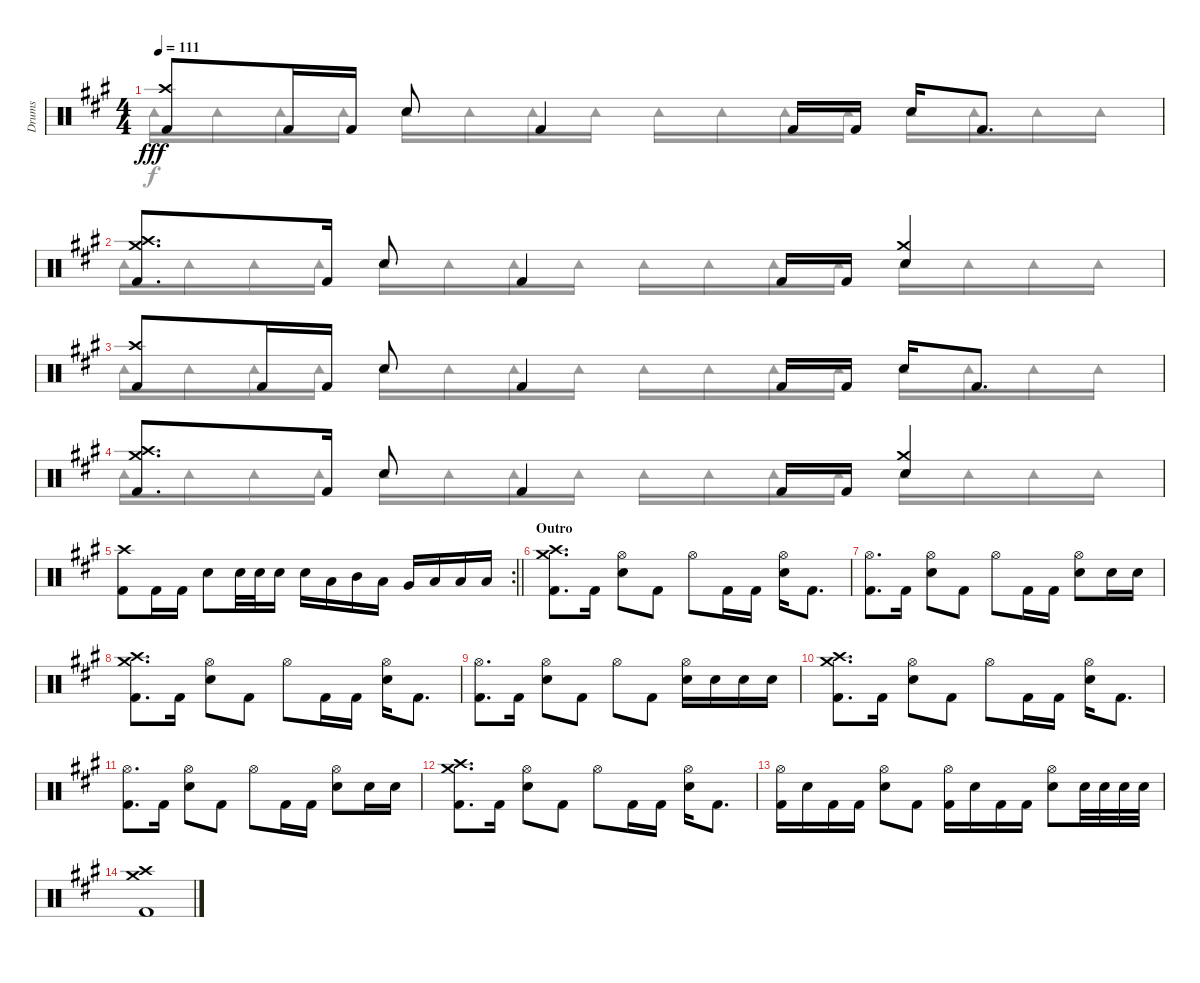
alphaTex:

\track ("Drums" "Drums") {instrument percussion}
\staff {score}
\articulation defaults
\voice
\ts (4 4)
\tempo 111
\clef neutral
\ks a
("Crash high (hit)" "Kick (hit) 2").8{dy fff} "Kick (hit) 2".16 "Kick (hit) 2".16 "Snare (hit) 2".8 "Kick (hit) 2".4 "Kick (hit) 2".16 "Kick (hit) 2".16 "Snare (hit) 2".16 "Kick (hit) 2".8{d} |
("Crash medium (hit)" "Crash high (hit)" "Kick (hit) 2").8{d} "Kick (hit) 2".16 "Snare (hit) 2".8 "Kick (hit) 2".4 "Kick (hit) 2".16 "Kick (hit) 2".16 ("Crash medium (hit)" "Snare (hit) 2").4 |
("Crash high (hit)" "Kick (hit) 2").8 "Kick (hit) 2".16 "Kick (hit) 2".16 "Snare (hit) 2".8 "Kick (hit) 2".4 "Kick (hit) 2".16 "Kick (hit) 2".16 "Snare (hit) 2".16 "Kick (hit) 2".8{d} |
("Crash medium (hit)" "Crash high (hit)" "Kick (hit) 2").8{d} "Kick (hit) 2".16 "Snare (hit) 2".8 "Kick (hit) 2".4 "Kick (hit) 2".16 "Kick (hit) 2".16 ("Crash medium (hit)" "Snare (hit) 2").4 |
\rc 2
\barLineRight lightlight
("Crash high (hit)" "Kick (hit) 2").8 "Kick (hit) 2".16 "Kick (hit) 2".16 "Snare (hit) 2".8 "Snare (hit) 2".32 "Snare (hit) 2".32 "Snare (hit) 2".16 "Snare (hit) 2".16 "Low Tom (hit)".16 "Mid Tom (hit)".16 "Low Tom (hit)".16 "Very Low Tom (hit)".16 "Low Tom (hit)".16 "Low Tom (hit)".16 "Low Floor Tom (hit)".16 |
\section ("" "Outro")
("Crash medium (hit)" "Crash high (hit)" "Kick (hit) 2").8{d} "Kick (hit) 2".16 ("Hi-Hat (open)" "Snare (hit) 2").8 "Kick (hit) 2".8 "Hi-Hat (open)".8 "Kick (hit) 2".16 "Kick (hit) 2".16 ("Hi-Hat (open)" "Snare (hit) 2").16 "Kick (hit) 2".8{d} |
("Hi-Hat (open)" "Kick (hit) 2").8{d} "Kick (hit) 2".16 ("Hi-Hat (open)" "Snare (hit) 2").8 "Kick (hit) 2".8 "Hi-Hat (open)".8 "Kick (hit) 2".16 "Kick (hit) 2".16 ("Hi-Hat (open)" "Snare (hit) 2").8 "Snare (hit) 2".16 "Snare (hit) 2".16 |
("Crash medium (hit)" "Crash high (hit)" "Kick (hit) 2").8{d} "Kick (hit) 2".16 ("Hi-Hat (open)" "Snare (hit) 2").8 "Kick (hit) 2".8 "Hi-Hat (open)".8 "Kick (hit) 2".16 "Kick (hit) 2".16 ("Hi-Hat (open)" "Snare (hit) 2").16 "Kick (hit) 2".8{d} |
("Hi-Hat (open)" "Kick (hit) 2").8{d} "Kick (hit) 2".16 ("Hi-Hat (open)" "Snare (hit) 2").8 "Kick (hit) 2".8 "Hi-Hat (open)".8 "Kick (hit) 2".8 ("Hi-Hat (open)" "Snare (hit) 2").16 "Snare (hit) 2".16 "Snare (hit) 2".16 "Snare (hit) 2".16 |
("Crash medium (hit)" "Crash high (hit)" "Kick (hit) 2").8{d} "Kick (hit) 2".16 ("Hi-Hat (open)" "Snare (hit) 2").8 "Kick (hit) 2".8 "Hi-Hat (open)".8 "Kick (hit) 2".16 "Kick (hit) 2".16 ("Hi-Hat (open)" "Snare (hit) 2").16 "Kick (hit) 2".8{d} |
("Hi-Hat (open)" "Kick (hit) 2").8{d} "Kick (hit) 2".16 ("Hi-Hat (open)" "Snare (hit) 2").8 "Kick (hit) 2".8 "Hi-Hat (open)".8 "Kick (hit) 2".16 "Kick (hit) 2".16 ("Hi-Hat (open)" "Snare (hit) 2").8 "Snare (hit) 2".16 "Snare (hit) 2".16 |
("Crash medium (hit)" "Crash high (hit)" "Kick (hit) 2").8{d} "Kick (hit) 2".16 ("Hi-Hat (open)" "Snare (hit) 2").8 "Kick (hit) 2".8 "Hi-Hat (open)".8 "Kick (hit) 2".16 "Kick (hit) 2".16 ("Hi-Hat (open)" "Snare (hit) 2").16 "Kick (hit) 2".8{d} |
("Hi-Hat (open)" "Kick (hit) 2").16 "Snare (hit) 2".16 "Kick (hit) 2".16 "Kick (hit) 2".16 ("Hi-Hat (open)" "Snare (hit) 2").8 "Kick (hit) 2".8 ("Hi-Hat (open)" "Kick (hit) 2").16 "Snare (hit) 2".16 "Kick (hit) 2".16 "Kick (hit) 2".16 ("Hi-Hat (open)" "Snare (hit) 2").8 "Snare (hit) 2".32 "Snare (hit) 2".32 "Snare (hit) 2".32 "Snare (hit) 2".32 |
("Crash medium (hit)" "Crash high (hit)" "Kick (hit) 2").1 |
\voice
\clef neutral
\ottava regular
\simile none
\ks a "Tambourine (hit)".16{dy f} "Tambourine (hit)".16 "Tambourine (hit)".16 "Tambourine (hit)".16 "Tambourine (hit)".16 "Tambourine (hit)".16 "Tambourine (hit)".16 "Tambourine (hit)".16 "Tambourine (hit)".16 "Tambourine (hit)".16 "Tambourine (hit)".16 "Tambourine (hit)".16 "Tambourine (hit)".16 "Tambourine (hit)".16 "Tambourine (hit)".16 "Tambourine (hit)".16
|
"Tambourine (hit)".16 "Tambourine (hit)".16 "Tambourine (hit)".16 "Tambourine (hit)".16 "Tambourine (hit)".16 "Tambourine (hit)".16 "Tambourine (hit)".16 "Tambourine (hit)".16 "Tambourine (hit)".16 "Tambourine (hit)".16 "Tambourine (hit)".16 "Tambourine (hit)".16 "Tambourine (hit)".16 "Tambourine (hit)".16 "Tambourine (hit)".16 "Tambourine (hit)".16 |
"Tambourine (hit)".16 "Tambourine (hit)".16 "Tambourine (hit)".16 "Tambourine (hit)".16 "Tambourine (hit)".16 "Tambourine (hit)".16 "Tambourine (hit)".16 "Tambourine (hit)".16 "Tambourine (hit)".16 "Tambourine (hit)".16 "Tambourine (hit)".16 "Tambourine (hit)".16 "Tambourine (hit)".16 "Tambourine (hit)".16 "Tambourine (hit)".16 "Tambourine (hit)".16 |
"Tambourine (hit)".16 "Tambourine (hit)".16 "Tambourine (hit)".16 "Tambourine (hit)".16 "Tambourine (hit)".16 "Tambourine (hit)".16 "Tambourine (hit)".16 "Tambourine (hit)".16 "Tambourine (hit)".16 "Tambourine (hit)".16 "Tambourine (hit)".16 "Tambourine (hit)".16 "Tambourine (hit)".16 "Tambourine (hit)".16 "Tambourine (hit)".16 "Tambourine (hit)".16 |
\barLineRight lightlight
|
|
|
|
|
|
|
|
|
|
